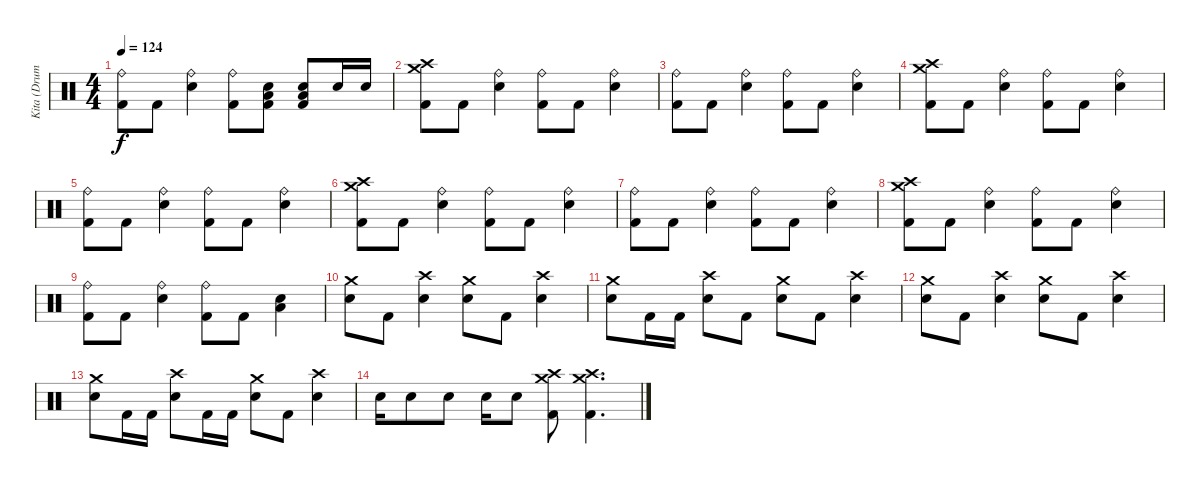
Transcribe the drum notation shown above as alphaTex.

\track ("Kita (Drums)" "Kita (Drum") {instrument percussion}
\staff {score}
\articulation defaults
\ts (4 4)
\tempo 124
\clef neutral
\ks c
("Ride (bell)" "Kick (hit) 2").8{dy f} "Kick (hit) 2".8 ("Ride (bell)" "Electric Snare (hit)").4 ("Ride (bell)" "Kick (hit) 2").8 ("Low Floor Tom (hit)" "Electric Snare (hit)" "Kick (hit) 2").8 ("Low Floor Tom (hit)" "Electric Snare (hit)" "Kick (hit) 2").8 "Electric Snare (hit)".16 "Electric Snare (hit)".16 |
("Crash medium (hit)" "Crash high (hit)" "Kick (hit) 2").8 "Kick (hit) 2".8 ("Ride (bell)" "Electric Snare (hit)").4 ("Ride (bell)" "Kick (hit) 2").8 "Kick (hit) 2".8 ("Ride (bell)" "Electric Snare (hit)").4 |
("Ride (bell)" "Kick (hit) 2").8 "Kick (hit) 2".8 ("Ride (bell)" "Electric Snare (hit)").4 ("Ride (bell)" "Kick (hit) 2").8 "Kick (hit) 2".8 ("Ride (bell)" "Electric Snare (hit)").4 |
("Crash medium (hit)" "Crash high (hit)" "Kick (hit) 2").8 "Kick (hit) 2".8 ("Ride (bell)" "Electric Snare (hit)").4 ("Ride (bell)" "Kick (hit) 2").8 "Kick (hit) 2".8 ("Ride (bell)" "Electric Snare (hit)").4 |
("Ride (bell)" "Kick (hit) 2").8 "Kick (hit) 2".8 ("Ride (bell)" "Electric Snare (hit)").4 ("Ride (bell)" "Kick (hit) 2").8 "Kick (hit) 2".8 ("Ride (bell)" "Electric Snare (hit)").4 |
("Crash medium (hit)" "Crash high (hit)" "Kick (hit) 2").8 "Kick (hit) 2".8 ("Ride (bell)" "Electric Snare (hit)").4 ("Ride (bell)" "Kick (hit) 2").8 "Kick (hit) 2".8 ("Ride (bell)" "Electric Snare (hit)").4 |
("Ride (bell)" "Kick (hit) 2").8 "Kick (hit) 2".8 ("Ride (bell)" "Electric Snare (hit)").4 ("Ride (bell)" "Kick (hit) 2").8 "Kick (hit) 2".8 ("Ride (bell)" "Electric Snare (hit)").4 |
("Crash medium (hit)" "Crash high (hit)" "Kick (hit) 2").8 "Kick (hit) 2".8 ("Ride (bell)" "Electric Snare (hit)").4 ("Ride (bell)" "Kick (hit) 2").8 "Kick (hit) 2".8 ("Ride (bell)" "Electric Snare (hit)").4 |
("Ride (bell)" "Kick (hit) 2").8 "Kick (hit) 2".8 ("Ride (bell)" "Electric Snare (hit)").4 ("Ride (bell)" "Kick (hit) 2").8 "Kick (hit) 2".8 ("Low Floor Tom (hit)" "Electric Snare (hit)").4 |
("Crash medium (hit)" "Electric Snare (hit)").8 "Kick (hit) 2".8 ("Crash high (hit)" "Electric Snare (hit)").4 ("Crash medium (hit)" "Electric Snare (hit)").8 "Kick (hit) 2".8 ("Crash high (hit)" "Electric Snare (hit)").4 |
("Crash medium (hit)" "Electric Snare (hit)").8 "Kick (hit) 2".16 "Kick (hit) 2".16 ("Crash high (hit)" "Electric Snare (hit)").8 "Kick (hit) 2".8 ("Crash medium (hit)" "Electric Snare (hit)").8 "Kick (hit) 2".8 ("Crash high (hit)" "Electric Snare (hit)").4 |
("Crash medium (hit)" "Electric Snare (hit)").8 "Kick (hit) 2".8 ("Crash high (hit)" "Electric Snare (hit)").4 ("Crash medium (hit)" "Electric Snare (hit)").8 "Kick (hit) 2".8 ("Crash high (hit)" "Electric Snare (hit)").4 |
("Crash medium (hit)" "Electric Snare (hit)").8 "Kick (hit) 2".16 "Kick (hit) 2".16 ("Crash high (hit)" "Electric Snare (hit)").8 "Kick (hit) 2".16 "Kick (hit) 2".16 ("Crash medium (hit)" "Electric Snare (hit)").8 "Kick (hit) 2".8 ("Crash high (hit)" "Electric Snare (hit)").4 |
"Electric Snare (hit)".16 "Electric Snare (hit)".8 "Electric Snare (hit)".8 "Electric Snare (hit)".16 "Electric Snare (hit)".8 ("Crash medium (hit)" "Crash high (hit)" "Kick (hit) 2").8 ("Crash medium (hit)" "Crash high (hit)" "Kick (hit) 2").4{d}
